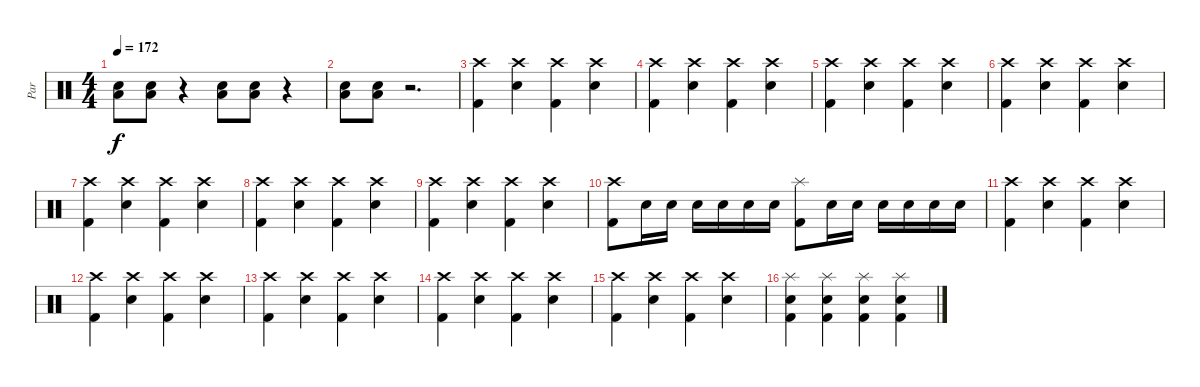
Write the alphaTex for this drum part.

\track ("Par" "Par") {instrument percussion}
\staff {score}
\articulation defaults
\ts (4 4)
\tempo 172
\clef neutral
\ks c
("Low Floor Tom (hit)" "Snare (hit) 2").8{dy f} ("Low Floor Tom (hit)" "Snare (hit) 2").8 r.4 ("Low Floor Tom (hit)" "Snare (hit) 2").8 ("Low Floor Tom (hit)" "Snare (hit) 2").8 r.4 |
("Low Floor Tom (hit)" "Snare (hit) 2").8 ("Low Floor Tom (hit)" "Snare (hit) 2").8 r.2{d} |
("Crash high (hit)" "Kick (hit) 2").4 ("Crash high (hit)" "Snare (hit) 2").4 ("Crash high (hit)" "Kick (hit) 2").4 ("Crash high (hit)" "Snare (hit) 2").4 |
("Crash high (hit)" "Kick (hit) 2").4 ("Crash high (hit)" "Snare (hit) 2").4 ("Crash high (hit)" "Kick (hit) 2").4 ("Crash high (hit)" "Snare (hit) 2").4 |
("Crash high (hit)" "Kick (hit) 2").4 ("Crash high (hit)" "Snare (hit) 2").4 ("Crash high (hit)" "Kick (hit) 2").4 ("Crash high (hit)" "Snare (hit) 2").4 |
("Crash high (hit)" "Kick (hit) 2").4 ("Crash high (hit)" "Snare (hit) 2").4 ("Crash high (hit)" "Kick (hit) 2").4 ("Crash high (hit)" "Snare (hit) 2").4 |
("Crash high (hit)" "Kick (hit) 2").4 ("Crash high (hit)" "Snare (hit) 2").4 ("Crash high (hit)" "Kick (hit) 2").4 ("Crash high (hit)" "Snare (hit) 2").4 |
("Crash high (hit)" "Kick (hit) 2").4 ("Crash high (hit)" "Snare (hit) 2").4 ("Crash high (hit)" "Kick (hit) 2").4 ("Crash high (hit)" "Snare (hit) 2").4 |
("Crash high (hit)" "Kick (hit) 2").4 ("Crash high (hit)" "Snare (hit) 2").4 ("Crash high (hit)" "Kick (hit) 2").4 ("Crash high (hit)" "Snare (hit) 2").4 |
("Crash high (hit)" "Kick (hit) 2").8 "Snare (hit) 2".16 "Snare (hit) 2".16 "Snare (hit) 2".16 "Snare (hit) 2".16 "Snare (hit) 2".16 "Snare (hit) 2".16 ("Splash (hit)" "Kick (hit) 2").8 "Snare (hit) 2".16 "Snare (hit) 2".16 "Snare (hit) 2".16 "Snare (hit) 2".16 "Snare (hit) 2".16 "Snare (hit) 2".16 |
("Crash high (hit)" "Kick (hit) 2").4 ("Crash high (hit)" "Snare (hit) 2").4 ("Crash high (hit)" "Kick (hit) 2").4 ("Crash high (hit)" "Snare (hit) 2").4 |
("Crash high (hit)" "Kick (hit) 2").4 ("Crash high (hit)" "Snare (hit) 2").4 ("Crash high (hit)" "Kick (hit) 2").4 ("Crash high (hit)" "Snare (hit) 2").4 |
("Crash high (hit)" "Kick (hit) 2").4 ("Crash high (hit)" "Snare (hit) 2").4 ("Crash high (hit)" "Kick (hit) 2").4 ("Crash high (hit)" "Snare (hit) 2").4 |
("Crash high (hit)" "Kick (hit) 2").4 ("Crash high (hit)" "Snare (hit) 2").4 ("Crash high (hit)" "Kick (hit) 2").4 ("Crash high (hit)" "Snare (hit) 2").4 |
("Crash high (hit)" "Kick (hit) 2").4 ("Crash high (hit)" "Snare (hit) 2").4 ("Crash high (hit)" "Kick (hit) 2").4 ("Crash high (hit)" "Snare (hit) 2").4 |
("Splash (hit)" "Snare (hit) 2" "Kick (hit) 2").4 ("Splash (hit)" "Snare (hit) 2" "Kick (hit) 2").4 ("Splash (hit)" "Snare (hit) 2" "Kick (hit) 2").4 ("Splash (hit)" "Snare (hit) 2" "Kick (hit) 2").4
